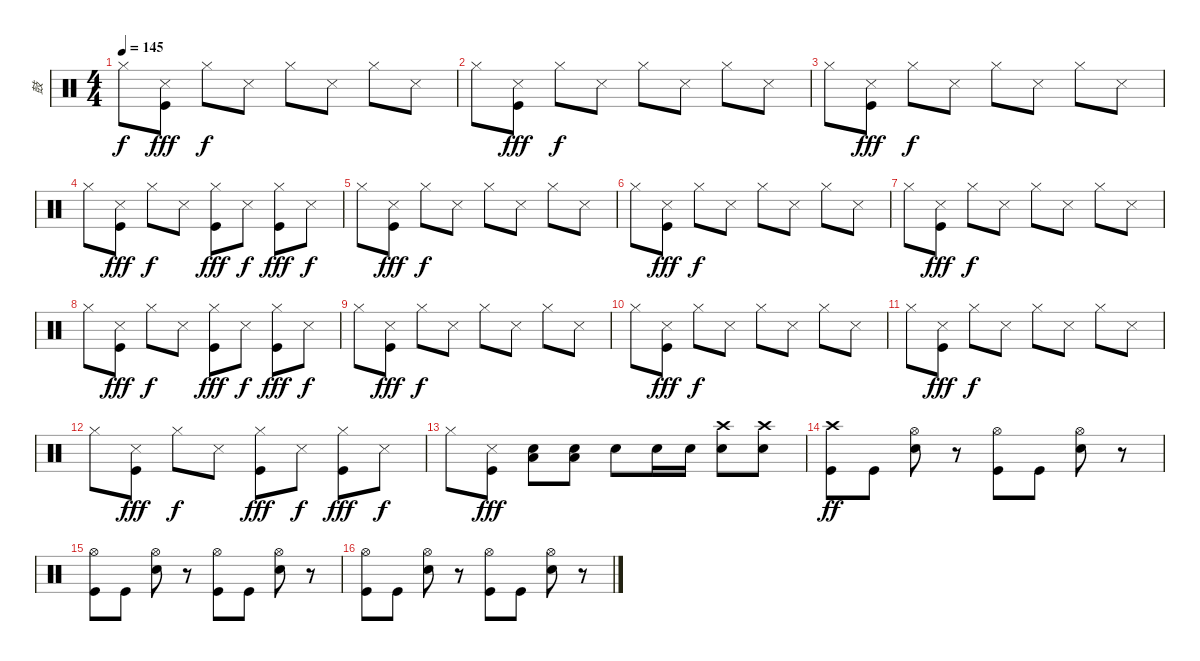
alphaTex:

\track ("鼓" "鼓") {instrument percussion}
\staff {score}
\articulation defaults
\ts (4 4)
\tempo 145
\clef neutral
\ks c "Hi-Hat (closed)".8{dy f}
("Snare (side stick) 3" "Kick (hit)").8{dy fff} "Hi-Hat (closed)".8{dy f} "Snare (side stick) 3".8 "Hi-Hat (closed)".8 "Snare (side stick) 3".8 "Hi-Hat (closed)".8 "Snare (side stick) 3".8 |
"Hi-Hat (closed)".8 ("Snare (side stick) 3" "Kick (hit)").8{dy fff} "Hi-Hat (closed)".8{dy f} "Snare (side stick) 3".8 "Hi-Hat (closed)".8 "Snare (side stick) 3".8 "Hi-Hat (closed)".8 "Snare (side stick) 3".8 |
"Hi-Hat (closed)".8 ("Snare (side stick) 3" "Kick (hit)").8{dy fff} "Hi-Hat (closed)".8{dy f} "Snare (side stick) 3".8 "Hi-Hat (closed)".8 "Snare (side stick) 3".8 "Hi-Hat (closed)".8 "Snare (side stick) 3".8 |
"Hi-Hat (closed)".8 ("Snare (side stick) 3" "Kick (hit)").8{dy fff} "Hi-Hat (closed)".8{dy f} "Snare (side stick) 3".8 ("Hi-Hat (closed)" "Kick (hit)").8{dy fff} "Snare (side stick) 3".8{dy f} ("Hi-Hat (closed)" "Kick (hit)").8{dy fff} "Snare (side stick) 3".8{dy f} |
"Hi-Hat (closed)".8 ("Snare (side stick) 3" "Kick (hit)").8{dy fff} "Hi-Hat (closed)".8{dy f} "Snare (side stick) 3".8 "Hi-Hat (closed)".8 "Snare (side stick) 3".8 "Hi-Hat (closed)".8 "Snare (side stick) 3".8 |
"Hi-Hat (closed)".8 ("Snare (side stick) 3" "Kick (hit)").8{dy fff} "Hi-Hat (closed)".8{dy f} "Snare (side stick) 3".8 "Hi-Hat (closed)".8 "Snare (side stick) 3".8 "Hi-Hat (closed)".8 "Snare (side stick) 3".8 |
"Hi-Hat (closed)".8 ("Snare (side stick) 3" "Kick (hit)").8{dy fff} "Hi-Hat (closed)".8{dy f} "Snare (side stick) 3".8 "Hi-Hat (closed)".8 "Snare (side stick) 3".8 "Hi-Hat (closed)".8 "Snare (side stick) 3".8 |
"Hi-Hat (closed)".8 ("Snare (side stick) 3" "Kick (hit)").8{dy fff} "Hi-Hat (closed)".8{dy f} "Snare (side stick) 3".8 ("Hi-Hat (closed)" "Kick (hit)").8{dy fff} "Snare (side stick) 3".8{dy f} ("Hi-Hat (closed)" "Kick (hit)").8{dy fff} "Snare (side stick) 3".8{dy f} |
"Hi-Hat (closed)".8 ("Snare (side stick) 3" "Kick (hit)").8{dy fff} "Hi-Hat (closed)".8{dy f} "Snare (side stick) 3".8 "Hi-Hat (closed)".8 "Snare (side stick) 3".8 "Hi-Hat (closed)".8 "Snare (side stick) 3".8 |
"Hi-Hat (closed)".8 ("Snare (side stick) 3" "Kick (hit)").8{dy fff} "Hi-Hat (closed)".8{dy f} "Snare (side stick) 3".8 "Hi-Hat (closed)".8 "Snare (side stick) 3".8 "Hi-Hat (closed)".8 "Snare (side stick) 3".8 |
"Hi-Hat (closed)".8 ("Snare (side stick) 3" "Kick (hit)").8{dy fff} "Hi-Hat (closed)".8{dy f} "Snare (side stick) 3".8 "Hi-Hat (closed)".8 "Snare (side stick) 3".8 "Hi-Hat (closed)".8 "Snare (side stick) 3".8 |
"Hi-Hat (closed)".8 ("Snare (side stick) 3" "Kick (hit)").8{dy fff} "Hi-Hat (closed)".8{dy f} "Snare (side stick) 3".8 ("Hi-Hat (closed)" "Kick (hit)").8{dy fff} "Snare (side stick) 3".8{dy f} ("Hi-Hat (closed)" "Kick (hit)").8{dy fff} "Snare (side stick) 3".8{dy f} |
"Hi-Hat (closed)".8 ("Snare (side stick) 3" "Kick (hit)").8{dy fff} ("Low Floor Tom (hit)" "Snare (hit) 2").8 ("Low Floor Tom (hit)" "Snare (hit) 2").8 "Snare (hit) 2".8 "Snare (hit) 2".16 "Snare (hit) 2".16 ("Crash high (hit)" "Snare (hit) 2").8 ("Crash high (hit)" "Snare (hit) 2").8 |
("Crash high (hit)" "Kick (hit)").8{dy ff} "Kick (hit)".8 ("Hi-Hat (open)" "Snare (hit) 2").8 r.8 ("Hi-Hat (open)" "Kick (hit)").8 "Kick (hit)".8 ("Hi-Hat (open)" "Snare (hit) 2").8 r.8 |
("Hi-Hat (open)" "Kick (hit)").8 "Kick (hit)".8 ("Hi-Hat (open)" "Snare (hit) 2").8 r.8 ("Hi-Hat (open)" "Kick (hit)").8 "Kick (hit)".8 ("Hi-Hat (open)" "Snare (hit) 2").8 r.8 |
("Hi-Hat (open)" "Kick (hit)").8 "Kick (hit)".8 ("Hi-Hat (open)" "Snare (hit) 2").8 r.8 ("Hi-Hat (open)" "Kick (hit)").8 "Kick (hit)".8 ("Hi-Hat (open)" "Snare (hit) 2").8 r.8
